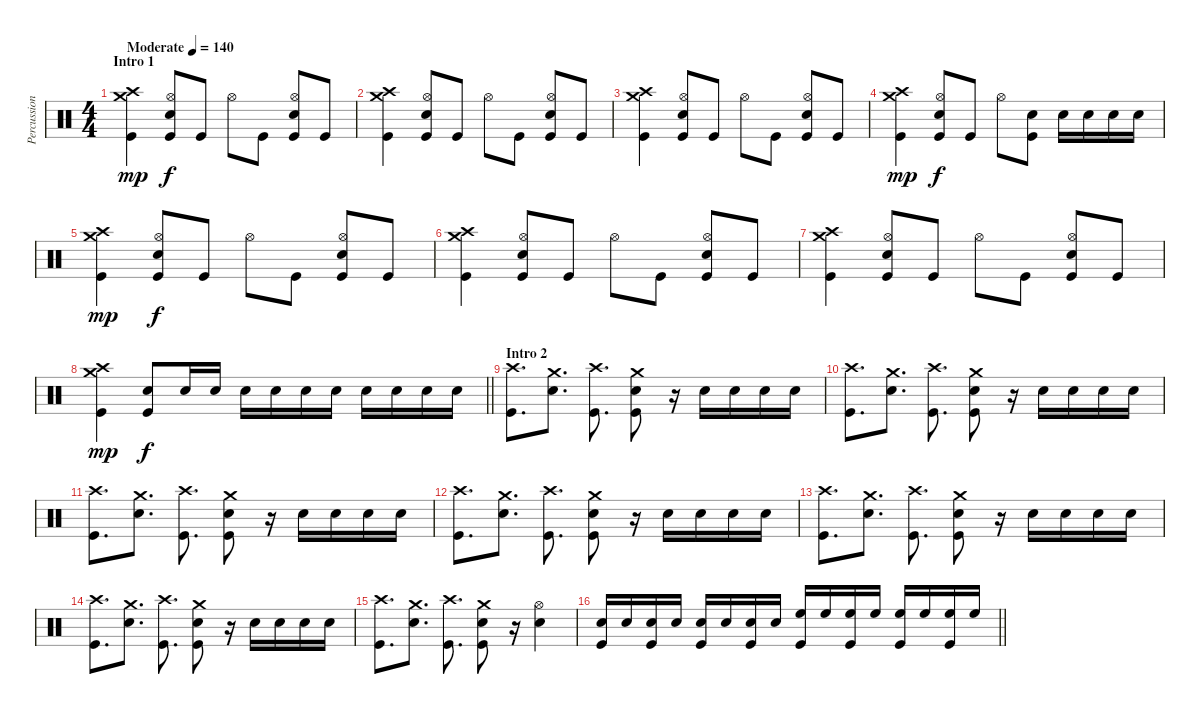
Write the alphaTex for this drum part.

\track ("Percussion" "Percussion") {instrument percussion}
\staff {score}
\articulation defaults
\ts (4 4)
\section ("" "Intro 1")
\tempo (140 "Moderate")
\clef neutral
\ks c
("Crash high (hit)" "Crash medium (hit)" "Kick (hit)").4{dy mp} ("Hi-Hat (open)" "Electric Snare (hit)" "Kick (hit)").8{dy f} "Kick (hit)".8 "Hi-Hat (open)".8 "Kick (hit)".8 ("Hi-Hat (open)" "Electric Snare (hit)" "Kick (hit)").8 "Kick (hit)".8 |
("Crash high (hit)" "Crash medium (hit)" "Kick (hit)").4 ("Hi-Hat (open)" "Electric Snare (hit)" "Kick (hit)").8 "Kick (hit)".8 "Hi-Hat (open)".8 "Kick (hit)".8 ("Hi-Hat (open)" "Electric Snare (hit)" "Kick (hit)").8 "Kick (hit)".8 |
("Crash high (hit)" "Crash medium (hit)" "Kick (hit)").4 ("Hi-Hat (open)" "Electric Snare (hit)" "Kick (hit)").8 "Kick (hit)".8 "Hi-Hat (open)".8 "Kick (hit)".8 ("Hi-Hat (open)" "Electric Snare (hit)" "Kick (hit)").8 "Kick (hit)".8 |
("Crash high (hit)" "Crash medium (hit)" "Kick (hit)").4{dy mp} ("Hi-Hat (open)" "Electric Snare (hit)" "Kick (hit)").8{dy f} "Kick (hit)".8 "Hi-Hat (open)".8 ("Electric Snare (hit)" "Kick (hit)").8 "Electric Snare (hit)".16 "Electric Snare (hit)".16 "Electric Snare (hit)".16 "Electric Snare (hit)".16 |
("Crash high (hit)" "Crash medium (hit)" "Kick (hit)").4{dy mp} ("Hi-Hat (open)" "Electric Snare (hit)" "Kick (hit)").8{dy f} "Kick (hit)".8 "Hi-Hat (open)".8 "Kick (hit)".8 ("Hi-Hat (open)" "Electric Snare (hit)" "Kick (hit)").8 "Kick (hit)".8 |
("Crash high (hit)" "Crash medium (hit)" "Kick (hit)").4 ("Hi-Hat (open)" "Electric Snare (hit)" "Kick (hit)").8 "Kick (hit)".8 "Hi-Hat (open)".8 "Kick (hit)".8 ("Hi-Hat (open)" "Electric Snare (hit)" "Kick (hit)").8 "Kick (hit)".8 |
("Crash high (hit)" "Crash medium (hit)" "Kick (hit)").4 ("Hi-Hat (open)" "Electric Snare (hit)" "Kick (hit)").8 "Kick (hit)".8 "Hi-Hat (open)".8 "Kick (hit)".8 ("Hi-Hat (open)" "Electric Snare (hit)" "Kick (hit)").8 "Kick (hit)".8 |
\barLineRight lightlight
("Crash high (hit)" "Crash medium (hit)" "Kick (hit)").4{dy mp} ("Electric Snare (hit)" "Kick (hit)").8{dy f} "Electric Snare (hit)".16 "Electric Snare (hit)".16 "Electric Snare (hit)".16 "Electric Snare (hit)".16 "Electric Snare (hit)".16 "Electric Snare (hit)".16 "Electric Snare (hit)".16 "Electric Snare (hit)".16 "Electric Snare (hit)".16 "Electric Snare (hit)".16 |
\section ("" "Intro 2")
("Crash high (hit)" "Kick (hit)").8{d} ("Crash medium (hit)" "Electric Snare (hit)").8{d} ("Crash high (hit)" "Kick (hit)").8{d} ("Crash medium (hit)" "Electric Snare (hit)" "Kick (hit)").8 r.16 "Electric Snare (hit)".16 "Electric Snare (hit)".16 "Electric Snare (hit)".16 "Electric Snare (hit)".16 |
("Crash high (hit)" "Kick (hit)").8{d} ("Crash medium (hit)" "Electric Snare (hit)").8{d} ("Crash high (hit)" "Kick (hit)").8{d} ("Crash medium (hit)" "Electric Snare (hit)" "Kick (hit)").8 r.16 "Electric Snare (hit)".16 "Electric Snare (hit)".16 "Electric Snare (hit)".16 "Electric Snare (hit)".16 |
("Crash high (hit)" "Kick (hit)").8{d} ("Crash medium (hit)" "Electric Snare (hit)").8{d} ("Crash high (hit)" "Kick (hit)").8{d} ("Crash medium (hit)" "Electric Snare (hit)" "Kick (hit)").8 r.16 "Electric Snare (hit)".16 "Electric Snare (hit)".16 "Electric Snare (hit)".16 "Electric Snare (hit)".16 |
("Crash high (hit)" "Kick (hit)").8{d} ("Crash medium (hit)" "Electric Snare (hit)").8{d} ("Crash high (hit)" "Kick (hit)").8{d} ("Crash medium (hit)" "Electric Snare (hit)" "Kick (hit)").8 r.16 "Electric Snare (hit)".16 "Electric Snare (hit)".16 "Electric Snare (hit)".16 "Electric Snare (hit)".16 |
("Crash high (hit)" "Kick (hit)").8{d} ("Crash medium (hit)" "Electric Snare (hit)").8{d} ("Crash high (hit)" "Kick (hit)").8{d} ("Crash medium (hit)" "Electric Snare (hit)" "Kick (hit)").8 r.16 "Electric Snare (hit)".16 "Electric Snare (hit)".16 "Electric Snare (hit)".16 "Electric Snare (hit)".16 |
("Crash high (hit)" "Kick (hit)").8{d} ("Crash medium (hit)" "Electric Snare (hit)").8{d} ("Crash high (hit)" "Kick (hit)").8{d} ("Crash medium (hit)" "Electric Snare (hit)" "Kick (hit)").8 r.16 "Electric Snare (hit)".16 "Electric Snare (hit)".16 "Electric Snare (hit)".16 "Electric Snare (hit)".16 |
("Crash high (hit)" "Kick (hit)").8{d} ("Crash medium (hit)" "Electric Snare (hit)").8{d} ("Crash high (hit)" "Kick (hit)").8{d} ("Crash medium (hit)" "Electric Snare (hit)" "Kick (hit)").8 r.16 ("Hi-Hat (open)" "Electric Snare (hit)").4 |
\barLineRight lightlight
("Electric Snare (hit)" "Kick (hit)").16 "Electric Snare (hit)".16 ("Electric Snare (hit)" "Kick (hit)").16 "Electric Snare (hit)".16 ("Electric Snare (hit)" "Kick (hit)").16 "Electric Snare (hit)".16 ("Electric Snare (hit)" "Kick (hit)").16 "Electric Snare (hit)".16 ("High Floor Tom (hit)" "Kick (hit)").16 "High Floor Tom (hit)".16 ("High Floor Tom (hit)" "Kick (hit)").16 "High Floor Tom (hit)".16 ("High Floor Tom (hit)" "Kick (hit)").16 "High Floor Tom (hit)".16 ("High Floor Tom (hit)" "Kick (hit)").16 "High Floor Tom (hit)".16
